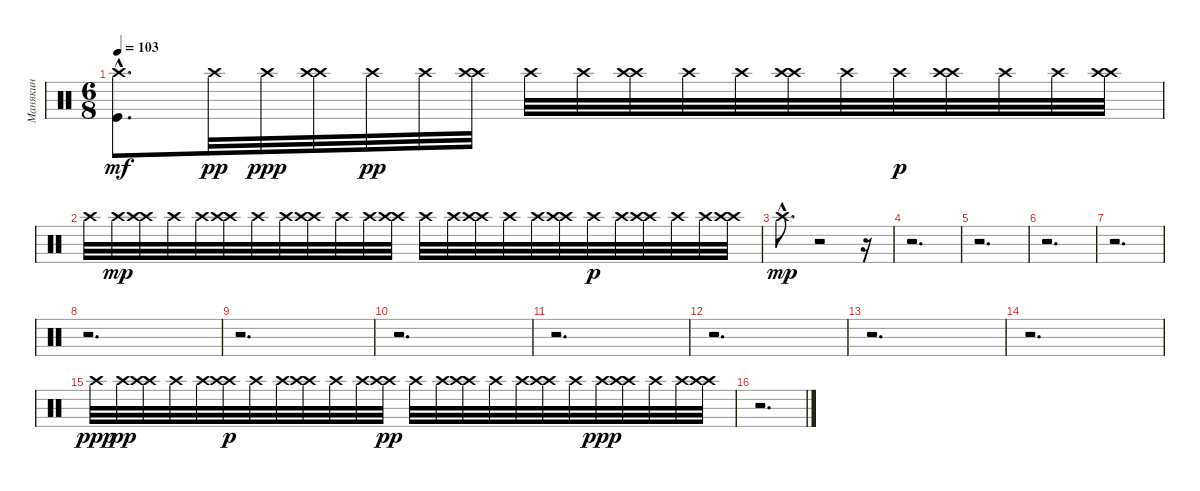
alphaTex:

\track ("Манякин" "Манякин") {instrument percussion}
\staff {score}
\articulation defaults
\ts (6 8)
\tempo 103
\clef neutral
\ks c
("Kick (hit)"{hac} "Crash high (hit)").8{d dy mf} "Crash high (hit)".32{dy pp} "Crash high (hit)".32{dy ppp} ("Crash high (hit)" "Crash high (hit)").32 "Crash high (hit)".32{dy pp} "Crash high (hit)".32 ("Crash high (hit)" "Crash high (hit)").32 "Crash high (hit)".32 "Crash high (hit)".32 ("Crash high (hit)" "Crash high (hit)").32 "Crash high (hit)".32 "Crash high (hit)".32 ("Crash high (hit)" "Crash high (hit)").32 "Crash high (hit)".32 "Crash high (hit)".32{dy p} ("Crash high (hit)" "Crash high (hit)").32 "Crash high (hit)".32 "Crash high (hit)".32 ("Crash high (hit)" "Crash high (hit)").32 |
"Crash high (hit)".32 "Crash high (hit)".32{dy mp} ("Crash high (hit)" "Crash high (hit)").32 "Crash high (hit)".32 "Crash high (hit)".32 ("Crash high (hit)" "Crash high (hit)").32 "Crash high (hit)".32 "Crash high (hit)".32 ("Crash high (hit)" "Crash high (hit)").32 "Crash high (hit)".32 "Crash high (hit)".32 ("Crash high (hit)" "Crash high (hit)").32 "Crash high (hit)".32 "Crash high (hit)".32 ("Crash high (hit)" "Crash high (hit)").32 "Crash high (hit)".32 "Crash high (hit)".32 ("Crash high (hit)" "Crash high (hit)").32 "Crash high (hit)".32{dy p} "Crash high (hit)".32 ("Crash high (hit)" "Crash high (hit)").32 "Crash high (hit)".32 "Crash high (hit)".32 ("Crash high (hit)" "Crash high (hit)").32 |
"Crash high (hit)"{hac}.8{d dy mp} r.2 r.16 |
r.2{d} |
r.2{d} |
r.2{d} |
r.2{d} |
r.2{d} |
r.2{d} |
r.2{d} |
r.2{d} |
r.2{d} |
r.2{d} |
r.2{d} |
"Crash high (hit)".32{dy ppp} "Crash high (hit)".32{dy pp} ("Crash high (hit)" "Crash high (hit)").32 "Crash high (hit)".32 "Crash high (hit)".32 ("Crash high (hit)" "Crash high (hit)").32{dy p} "Crash high (hit)".32 "Crash high (hit)".32 ("Crash high (hit)" "Crash high (hit)").32 "Crash high (hit)".32 "Crash high (hit)".32 ("Crash high (hit)" "Crash high (hit)").32{dy pp} "Crash high (hit)".32 "Crash high (hit)".32 ("Crash high (hit)" "Crash high (hit)").32 "Crash high (hit)".32 "Crash high (hit)".32 ("Crash high (hit)" "Crash high (hit)").32 "Crash high (hit)".32 "Crash high (hit)".32{dy ppp} ("Crash high (hit)" "Crash high (hit)").32 "Crash high (hit)".32 "Crash high (hit)".32 ("Crash high (hit)" "Crash high (hit)").32 |
r.2{d}
